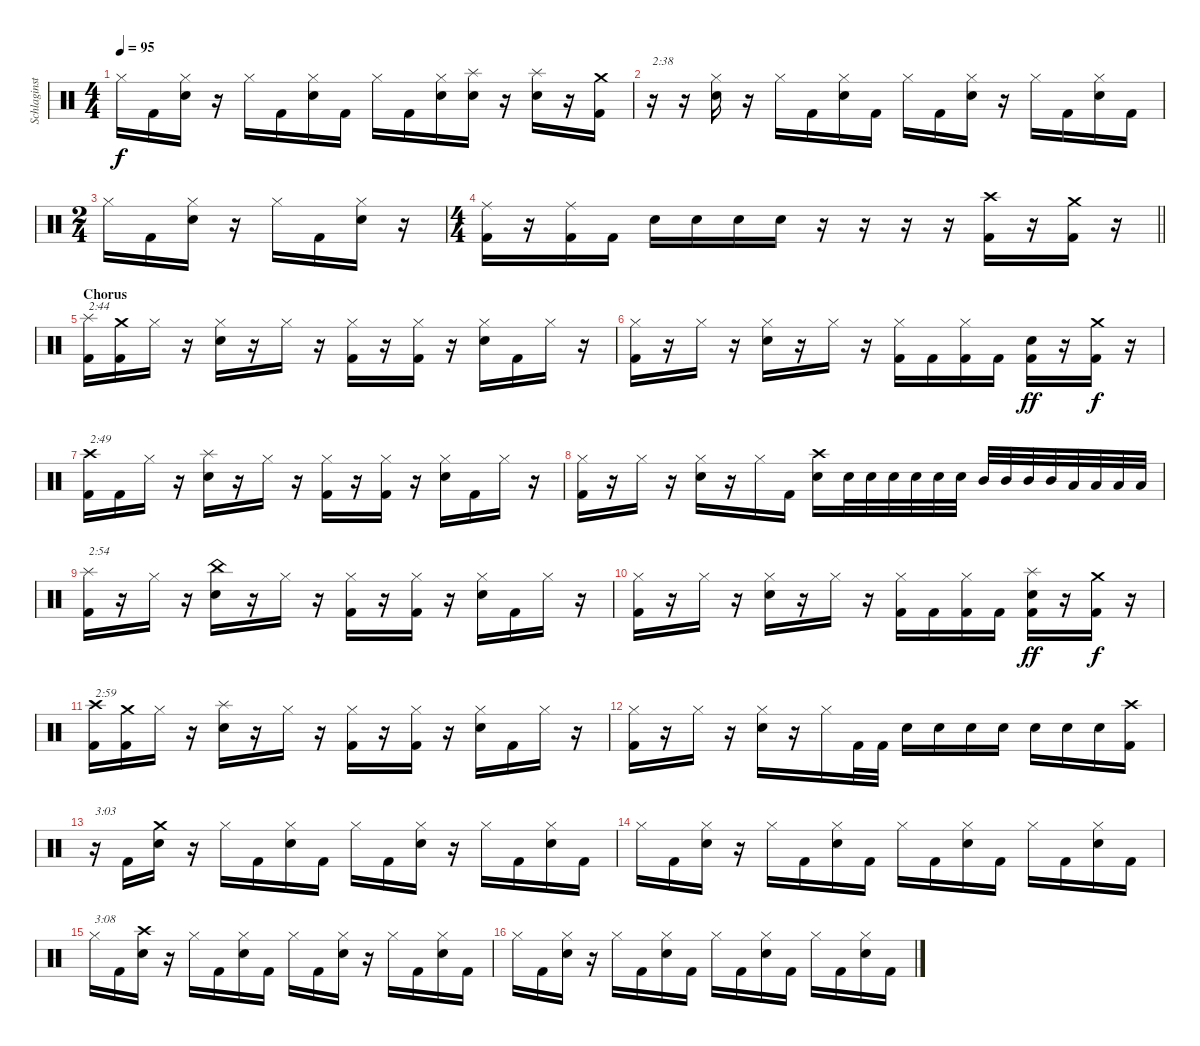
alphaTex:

\track ("Schlaginstrumente - Auswahl" "Schlaginst") {instrument percussion}
\staff {score}
\articulation defaults
\ts (4 4)
\tempo 95
\clef neutral
\ks c "Hi-Hat (closed)".16{dy f} "Kick (hit) 2".16
("Hi-Hat (closed)" "Electric Snare (hit)").16 r.16 "Hi-Hat (closed)".16 "Kick (hit) 2".16 ("Hi-Hat (closed)" "Electric Snare (hit)").16 "Kick (hit) 2".16 "Hi-Hat (closed)".16 "Kick (hit) 2".16 ("Hi-Hat (closed)" "Electric Snare (hit)").16 ("Splash (hit)" "Electric Snare (hit)").16 r.16 ("Splash (hit)" "Electric Snare (hit)").16 r.16 ("Crash medium (hit)" "Kick (hit) 2").16 |
r.16{txt "2:38"} r.16 ("Hi-Hat (closed)" "Electric Snare (hit)").16 r.16 "Hi-Hat (closed)".16 "Kick (hit) 2".16 ("Hi-Hat (closed)" "Electric Snare (hit)").16 "Kick (hit) 2".16 "Hi-Hat (closed)".16 "Kick (hit) 2".16 ("Hi-Hat (closed)" "Electric Snare (hit)").16 r.16 "Hi-Hat (closed)".16 "Kick (hit) 2".16 ("Hi-Hat (closed)" "Electric Snare (hit)").16 "Kick (hit) 2".16 |
\ts (2 4)
"Hi-Hat (closed)".16 "Kick (hit) 2".16 ("Hi-Hat (closed)" "Electric Snare (hit)").16 r.16 "Hi-Hat (closed)".16 "Kick (hit) 2".16 ("Hi-Hat (closed)" "Electric Snare (hit)").16 r.16 |
\ts (4 4)
\barLineRight lightlight
("Ride (middle)" "Kick (hit) 2").16 r.16 ("Ride (middle)" "Kick (hit) 2").16 "Kick (hit) 2".16 "Electric Snare (hit)".16 "Electric Snare (hit)".16 "Electric Snare (hit)".16 "Electric Snare (hit)".16 r.16 r.16 r.16 r.16 ("Crash high (hit)" "Kick (hit) 2").16 r.16 ("Crash medium (hit)" "Kick (hit) 2").16 r.16 |
\section ("" "Chorus")
("Splash (hit)" "Kick (hit) 2").16{txt "2:44"} ("Crash medium (hit)" "Kick (hit) 2").16 "Hi-Hat (closed)".16 r.16 ("Hi-Hat (closed)" "Electric Snare (hit)").16 r.16 "Hi-Hat (closed)".16 r.16 ("Hi-Hat (closed)" "Kick (hit) 2").16 r.16 ("Hi-Hat (closed)" "Kick (hit) 2").16 r.16 ("Hi-Hat (closed)" "Electric Snare (hit)").16 "Kick (hit) 2".16 "Hi-Hat (closed)".16 r.16 |
("Hi-Hat (closed)" "Kick (hit) 2").16 r.16 "Hi-Hat (closed)".16 r.16 ("Hi-Hat (closed)" "Electric Snare (hit)").16 r.16 "Hi-Hat (closed)".16 r.16 ("Hi-Hat (closed)" "Kick (hit) 2").16 "Kick (hit) 2".16 ("Hi-Hat (closed)" "Kick (hit) 2").16 "Kick (hit) 2".16 ("Electric Snare (hit)" "Kick (hit) 2").16{dy ff} r.16 ("Crash medium (hit)" "Kick (hit) 2").16{dy f} r.16 |
("Crash high (hit)" "Kick (hit) 2").16{txt "2:49"} "Kick (hit) 2".16 "Hi-Hat (closed)".16 r.16 ("Splash (hit)" "Electric Snare (hit)").16 r.16 "Hi-Hat (closed)".16 r.16 ("Hi-Hat (closed)" "Kick (hit) 2").16 r.16 ("Hi-Hat (closed)" "Kick (hit) 2").16 r.16 ("Hi-Hat (closed)" "Electric Snare (hit)").16 "Kick (hit) 2".16 "Hi-Hat (closed)".16 r.16 |
("Hi-Hat (closed)" "Kick (hit) 2").16 r.16 "Hi-Hat (closed)".16 r.16 ("Hi-Hat (closed)" "Electric Snare (hit)").16 r.16 "Hi-Hat (closed)".16 "Kick (hit) 2".16 ("Crash high (hit)" "Electric Snare (hit)").16 "Electric Snare (hit)".32 "Electric Snare (hit)".32 "Electric Snare (hit)".32 "Electric Snare (hit)".32 "Electric Snare (hit)".32 "Electric Snare (hit)".32 "Mid Tom (hit)".32 "Mid Tom (hit)".32 "Mid Tom (hit)".32 "Mid Tom (hit)".32 "Low Tom (hit)".32 "Low Tom (hit)".32 "Low Tom (hit)".32 "Low Tom (hit)".32 |
("Splash (hit)" "Kick (hit) 2").16{txt "2:54"} r.16 "Hi-Hat (closed)".16 r.16 ("China (hit)" "Electric Snare (hit)").16 r.16 "Hi-Hat (closed)".16 r.16 ("Hi-Hat (closed)" "Kick (hit) 2").16 r.16 ("Hi-Hat (closed)" "Kick (hit) 2").16 r.16 ("Hi-Hat (closed)" "Electric Snare (hit)").16 "Kick (hit) 2".16 "Hi-Hat (closed)".16 r.16 |
("Hi-Hat (closed)" "Kick (hit) 2").16 r.16 "Hi-Hat (closed)".16 r.16 ("Hi-Hat (closed)" "Electric Snare (hit)").16 r.16 "Hi-Hat (closed)".16 r.16 ("Hi-Hat (closed)" "Kick (hit) 2").16 "Kick (hit) 2".16 ("Hi-Hat (closed)" "Kick (hit) 2").16 "Kick (hit) 2".16 ("Splash (hit)" "Electric Snare (hit)" "Kick (hit) 2").16{dy ff} r.16 ("Crash medium (hit)" "Kick (hit) 2").16{dy f} r.16 |
("Crash high (hit)" "Kick (hit) 2").16{txt "2:59"} ("Crash medium (hit)" "Kick (hit) 2").16 "Hi-Hat (closed)".16 r.16 ("Splash (hit)" "Electric Snare (hit)").16 r.16 "Hi-Hat (closed)".16 r.16 ("Hi-Hat (closed)" "Kick (hit) 2").16 r.16 ("Hi-Hat (closed)" "Kick (hit) 2").16 r.16 ("Hi-Hat (closed)" "Electric Snare (hit)").16 "Kick (hit) 2".16 "Hi-Hat (closed)".16 r.16 |
("Hi-Hat (closed)" "Kick (hit) 2").16 r.16 "Hi-Hat (closed)".16 r.16 ("Hi-Hat (closed)" "Electric Snare (hit)").16 r.16 "Hi-Hat (closed)".16 "Kick (hit) 2".32 "Kick (hit) 2".32 "Electric Snare (hit)".16 "Electric Snare (hit)".16 "Electric Snare (hit)".16 "Electric Snare (hit)".16 "Electric Snare (hit)".16 "Electric Snare (hit)".16 "Electric Snare (hit)".16 ("Crash high (hit)" "Kick (hit) 2").16 |
r.16{txt "3:03"} "Kick (hit) 2".16 ("Crash medium (hit)" "Electric Snare (hit)").16 r.16 "Hi-Hat (closed)".16 "Kick (hit) 2".16 ("Hi-Hat (closed)" "Electric Snare (hit)").16 "Kick (hit) 2".16 "Hi-Hat (closed)".16 "Kick (hit) 2".16 ("Hi-Hat (closed)" "Electric Snare (hit)").16 r.16 "Hi-Hat (closed)".16 "Kick (hit) 2".16 ("Hi-Hat (closed)" "Electric Snare (hit)").16 "Kick (hit) 2".16 |
"Hi-Hat (closed)".16 "Kick (hit) 2".16 ("Hi-Hat (closed)" "Electric Snare (hit)").16 r.16 "Hi-Hat (closed)".16 "Kick (hit) 2".16 ("Hi-Hat (closed)" "Electric Snare (hit)").16 "Kick (hit) 2".16 "Hi-Hat (closed)".16 "Kick (hit) 2".16 ("Hi-Hat (closed)" "Electric Snare (hit)").16 "Kick (hit) 2".16 "Hi-Hat (closed)".16 "Kick (hit) 2".16 ("Hi-Hat (closed)" "Electric Snare (hit)").16 "Kick (hit) 2".16 |
"Hi-Hat (closed)".16{txt "3:08"} "Kick (hit) 2".16 ("Crash high (hit)" "Electric Snare (hit)").16 r.16 "Hi-Hat (closed)".16 "Kick (hit) 2".16 ("Hi-Hat (closed)" "Electric Snare (hit)").16 "Kick (hit) 2".16 "Hi-Hat (closed)".16 "Kick (hit) 2".16 ("Hi-Hat (closed)" "Electric Snare (hit)").16 r.16 "Hi-Hat (closed)".16 "Kick (hit) 2".16 ("Hi-Hat (closed)" "Electric Snare (hit)").16 "Kick (hit) 2".16 |
"Hi-Hat (closed)".16 "Kick (hit) 2".16 ("Hi-Hat (closed)" "Electric Snare (hit)").16 r.16 "Hi-Hat (closed)".16 "Kick (hit) 2".16 ("Hi-Hat (closed)" "Electric Snare (hit)").16 "Kick (hit) 2".16 "Hi-Hat (closed)".16 "Kick (hit) 2".16 ("Hi-Hat (closed)" "Electric Snare (hit)").16 "Kick (hit) 2".16 "Hi-Hat (closed)".16 "Kick (hit) 2".16 ("Hi-Hat (closed)" "Electric Snare (hit)").16 "Kick (hit) 2".16
